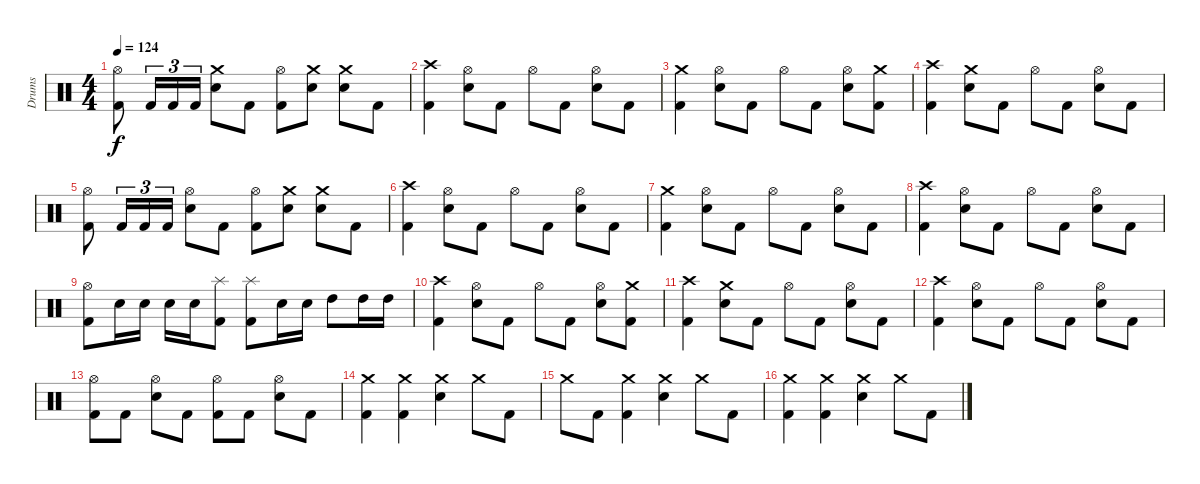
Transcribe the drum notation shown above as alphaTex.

\track ("Drums" "Drums") {instrument percussion}
\staff {score}
\articulation defaults
\ts (4 4)
\tempo 124
\clef neutral
\ks c
("Hi-Hat (open)" "Kick (hit) 2").8{dy f} "Kick (hit) 2".16{tu (3 2)} "Kick (hit) 2".16{tu (3 2)} "Kick (hit) 2".16{tu (3 2)} ("Crash medium (hit)" "Snare (hit) 2").8 "Kick (hit) 2".8 ("Hi-Hat (open)" "Kick (hit) 2").8 ("Crash medium (hit)" "Snare (hit) 2").8 ("Crash medium (hit)" "Snare (hit) 2").8 "Kick (hit) 2".8 |
("Crash high (hit)" "Kick (hit) 2").4 ("Hi-Hat (open)" "Snare (hit) 2").8 "Kick (hit) 2".8 "Hi-Hat (open)".8 "Kick (hit) 2".8 ("Hi-Hat (open)" "Snare (hit) 2").8 "Kick (hit) 2".8 |
("Crash medium (hit)" "Kick (hit) 2").4 ("Hi-Hat (open)" "Snare (hit) 2").8 "Kick (hit) 2".8 "Hi-Hat (open)".8 "Kick (hit) 2".8 ("Hi-Hat (open)" "Snare (hit) 2").8 ("Crash medium (hit)" "Kick (hit) 2").8 |
("Crash high (hit)" "Kick (hit) 2").4 ("Crash medium (hit)" "Snare (hit) 2").8 "Kick (hit) 2".8 "Hi-Hat (open)".8 "Kick (hit) 2".8 ("Hi-Hat (open)" "Snare (hit) 2").8 "Kick (hit) 2".8 |
("Hi-Hat (open)" "Kick (hit) 2").8 "Kick (hit) 2".16{tu (3 2)} "Kick (hit) 2".16{tu (3 2)} "Kick (hit) 2".16{tu (3 2)} ("Hi-Hat (open)" "Snare (hit) 2").8 "Kick (hit) 2".8 ("Hi-Hat (open)" "Kick (hit) 2").8 ("Crash medium (hit)" "Snare (hit) 2").8 ("Crash medium (hit)" "Snare (hit) 2").8 "Kick (hit) 2".8 |
("Crash high (hit)" "Kick (hit) 2").4 ("Hi-Hat (open)" "Snare (hit) 2").8 "Kick (hit) 2".8 "Hi-Hat (open)".8 "Kick (hit) 2".8 ("Hi-Hat (open)" "Snare (hit) 2").8 "Kick (hit) 2".8 |
("Crash medium (hit)" "Kick (hit) 2").4 ("Hi-Hat (open)" "Snare (hit) 2").8 "Kick (hit) 2".8 "Hi-Hat (open)".8 "Kick (hit) 2".8 ("Hi-Hat (open)" "Snare (hit) 2").8 "Kick (hit) 2".8 |
("Crash high (hit)" "Kick (hit) 2").4 ("Hi-Hat (open)" "Snare (hit) 2").8 "Kick (hit) 2".8 "Hi-Hat (open)".8 "Kick (hit) 2".8 ("Hi-Hat (open)" "Snare (hit) 2").8 "Kick (hit) 2".8 |
("Hi-Hat (open)" "Kick (hit) 2").8 "Snare (hit) 2".16 "Snare (hit) 2".16 "Snare (hit) 2".16 "Snare (hit) 2".16 ("Splash (hit)" "Kick (hit) 2").8 ("Splash (hit)" "Kick (hit) 2").8 "Snare (hit) 2".16 "Snare (hit) 2".16 "High Tom (hit)".8 "High Tom (hit)".16 "High Tom (hit)".16 |
("Crash high (hit)" "Kick (hit) 2").4 ("Hi-Hat (open)" "Snare (hit) 2").8 "Kick (hit) 2".8 "Hi-Hat (open)".8 "Kick (hit) 2".8 ("Hi-Hat (open)" "Snare (hit) 2").8 ("Crash medium (hit)" "Kick (hit) 2").8 |
("Crash high (hit)" "Kick (hit) 2").4 ("Crash medium (hit)" "Snare (hit) 2").8 "Kick (hit) 2".8 "Hi-Hat (open)".8 "Kick (hit) 2".8 ("Hi-Hat (open)" "Snare (hit) 2").8 "Kick (hit) 2".8 |
("Crash high (hit)" "Kick (hit) 2").4 ("Hi-Hat (open)" "Snare (hit) 2").8 "Kick (hit) 2".8 "Hi-Hat (open)".8 "Kick (hit) 2".8 ("Hi-Hat (open)" "Snare (hit) 2").8 "Kick (hit) 2".8 |
("Hi-Hat (open)" "Kick (hit) 2").8 "Kick (hit) 2".8 ("Hi-Hat (open)" "Snare (hit) 2").8 "Kick (hit) 2".8 ("Hi-Hat (open)" "Kick (hit) 2").8 "Kick (hit) 2".8 ("Hi-Hat (open)" "Snare (hit) 2").8 "Kick (hit) 2".8 |
("Crash medium (hit)" "Kick (hit) 2").4 ("Crash medium (hit)" "Kick (hit) 2").4 ("Crash medium (hit)" "Snare (hit) 2").4 "Crash medium (hit)".8 "Kick (hit) 2".8 |
"Crash medium (hit)".8 "Kick (hit) 2".8 ("Crash medium (hit)" "Kick (hit) 2").4 ("Crash medium (hit)" "Snare (hit) 2").4 "Crash medium (hit)".8 "Kick (hit) 2".8 |
("Crash medium (hit)" "Kick (hit) 2").4 ("Crash medium (hit)" "Kick (hit) 2").4 ("Crash medium (hit)" "Snare (hit) 2").4 "Crash medium (hit)".8 "Kick (hit) 2".8
